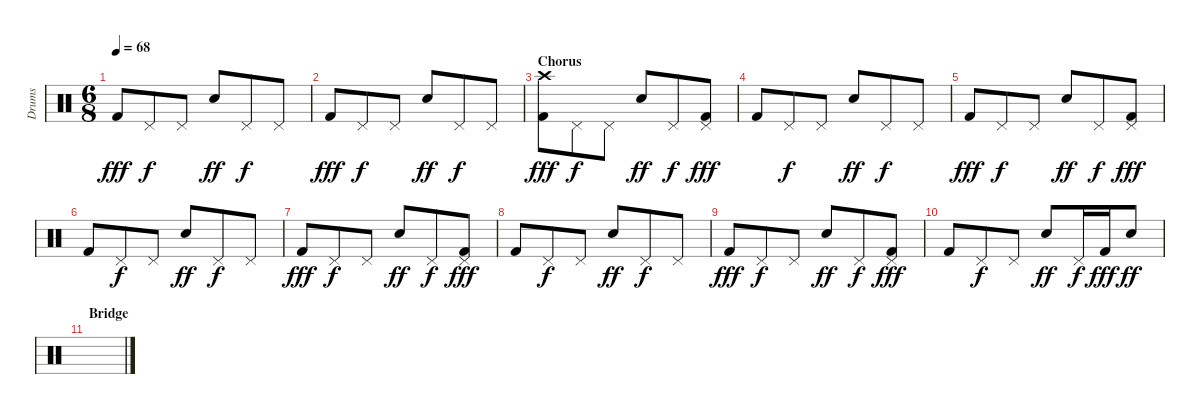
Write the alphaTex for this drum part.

\track ("Drums" "Drums") {instrument percussion}
\staff {score}
\articulation defaults
\ts (6 8)
\tempo 68
\clef neutral
\ks c "Kick (hit) 2".8{dy fff} "Pedal Hi-Hat (hit)".8{dy f} "Pedal Hi-Hat (hit)".8 "Snare (hit) 2".8{dy ff} "Pedal Hi-Hat (hit)".8{dy f} "Pedal Hi-Hat (hit)".8
|
"Kick (hit) 2".8{dy fff} "Pedal Hi-Hat (hit)".8{dy f} "Pedal Hi-Hat (hit)".8 "Snare (hit) 2".8{dy ff} "Pedal Hi-Hat (hit)".8{dy f} "Pedal Hi-Hat (hit)".8 |
\section ("" "Chorus")
("Crash high (hit)" "Kick (hit) 2").8{dy fff} "Pedal Hi-Hat (hit)".8{dy f} "Pedal Hi-Hat (hit)".8 "Snare (hit) 2".8{dy ff} "Pedal Hi-Hat (hit)".8{dy f} ("Pedal Hi-Hat (hit)" "Kick (hit) 2").8{dy fff} |
"Kick (hit) 2".8 "Pedal Hi-Hat (hit)".8{dy f} "Pedal Hi-Hat (hit)".8 "Snare (hit) 2".8{dy ff} "Pedal Hi-Hat (hit)".8{dy f} "Pedal Hi-Hat (hit)".8 |
"Kick (hit) 2".8{dy fff} "Pedal Hi-Hat (hit)".8{dy f} "Pedal Hi-Hat (hit)".8 "Snare (hit) 2".8{dy ff} "Pedal Hi-Hat (hit)".8{dy f} ("Pedal Hi-Hat (hit)" "Kick (hit) 2").8{dy fff} |
"Kick (hit) 2".8 "Pedal Hi-Hat (hit)".8{dy f} "Pedal Hi-Hat (hit)".8 "Snare (hit) 2".8{dy ff} "Pedal Hi-Hat (hit)".8{dy f} "Pedal Hi-Hat (hit)".8 |
"Kick (hit) 2".8{dy fff} "Pedal Hi-Hat (hit)".8{dy f} "Pedal Hi-Hat (hit)".8 "Snare (hit) 2".8{dy ff} "Pedal Hi-Hat (hit)".8{dy f} ("Pedal Hi-Hat (hit)" "Kick (hit) 2").8{dy fff} |
"Kick (hit) 2".8 "Pedal Hi-Hat (hit)".8{dy f} "Pedal Hi-Hat (hit)".8 "Snare (hit) 2".8{dy ff} "Pedal Hi-Hat (hit)".8{dy f} "Pedal Hi-Hat (hit)".8 |
"Kick (hit) 2".8{dy fff} "Pedal Hi-Hat (hit)".8{dy f} "Pedal Hi-Hat (hit)".8 "Snare (hit) 2".8{dy ff} "Pedal Hi-Hat (hit)".8{dy f} ("Pedal Hi-Hat (hit)" "Kick (hit) 2").8{dy fff} |
"Kick (hit) 2".8 "Pedal Hi-Hat (hit)".8{dy f} "Pedal Hi-Hat (hit)".8 "Snare (hit) 2".8{dy ff} "Pedal Hi-Hat (hit)".16{dy f} "Kick (hit) 2".16{dy fff} "Snare (hit) 2".8{dy ff} |
\section ("" "Bridge")
